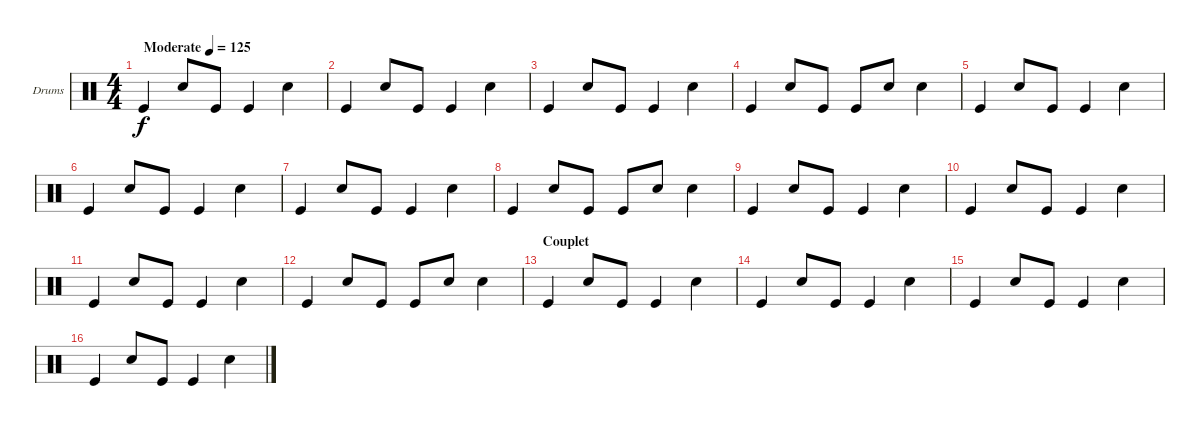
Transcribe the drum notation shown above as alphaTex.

\bracketExtendMode groupsimilarinstruments
\firstSystemTrackNameOrientation horizontal
\otherSystemsTrackNameOrientation horizontal
\track ("batterie" "Drums") {instrument percussion}
\staff {score}
\articulation defaults
\ts (4 4)
\beaming (8 2 2 2 2)
\tempo (125 "Moderate")
\clef neutral
\ks c "Kick (hit)".4{dy f} "Snare (hit) 2".8 "Kick (hit)".8 "Kick (hit)".4 "Snare (hit) 2".4
|
"Kick (hit)".4 "Snare (hit) 2".8 "Kick (hit)".8 "Kick (hit)".4 "Snare (hit) 2".4 |
"Kick (hit)".4 "Snare (hit) 2".8 "Kick (hit)".8 "Kick (hit)".4 "Snare (hit) 2".4 |
"Kick (hit)".4 "Snare (hit) 2".8 "Kick (hit)".8 "Kick (hit)".8 "Snare (hit) 2".8 "Snare (hit) 2".4 |
"Kick (hit)".4 "Snare (hit) 2".8 "Kick (hit)".8 "Kick (hit)".4 "Snare (hit) 2".4 |
"Kick (hit)".4 "Snare (hit) 2".8 "Kick (hit)".8 "Kick (hit)".4 "Snare (hit) 2".4 |
"Kick (hit)".4 "Snare (hit) 2".8 "Kick (hit)".8 "Kick (hit)".4 "Snare (hit) 2".4 |
"Kick (hit)".4 "Snare (hit) 2".8 "Kick (hit)".8 "Kick (hit)".8 "Snare (hit) 2".8 "Snare (hit) 2".4 |
"Kick (hit)".4 "Snare (hit) 2".8 "Kick (hit)".8 "Kick (hit)".4 "Snare (hit) 2".4 |
"Kick (hit)".4 "Snare (hit) 2".8 "Kick (hit)".8 "Kick (hit)".4 "Snare (hit) 2".4 |
"Kick (hit)".4 "Snare (hit) 2".8 "Kick (hit)".8 "Kick (hit)".4 "Snare (hit) 2".4 |
"Kick (hit)".4 "Snare (hit) 2".8 "Kick (hit)".8 "Kick (hit)".8 "Snare (hit) 2".8 "Snare (hit) 2".4 |
\section ("" "Couplet")
"Kick (hit)".4 "Snare (hit) 2".8 "Kick (hit)".8 "Kick (hit)".4 "Snare (hit) 2".4 |
"Kick (hit)".4 "Snare (hit) 2".8 "Kick (hit)".8 "Kick (hit)".4 "Snare (hit) 2".4 |
"Kick (hit)".4 "Snare (hit) 2".8 "Kick (hit)".8 "Kick (hit)".4 "Snare (hit) 2".4 |
"Kick (hit)".4 "Snare (hit) 2".8 "Kick (hit)".8 "Kick (hit)".4 "Snare (hit) 2".4
